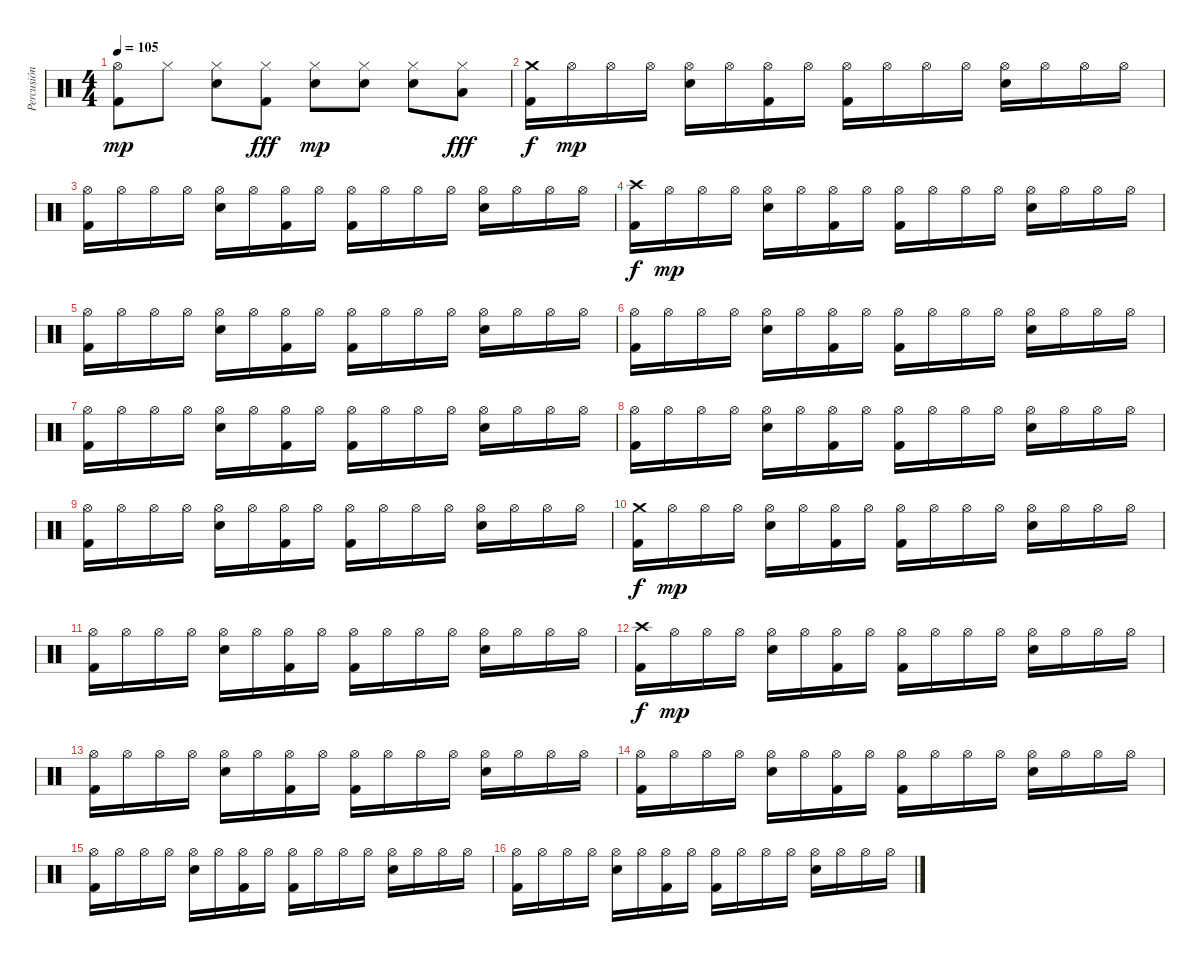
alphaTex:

\track ("Percusión" "Percusión") {instrument percussion}
\staff {score}
\articulation defaults
\ts (4 4)
\tempo 105
\clef neutral
\ks c
("Hi-Hat (open)" "Kick (hit) 2").8{dy mp} "Hi-Hat (closed)".8 ("Hi-Hat (closed)" "Snare (hit) 2").8 ("Hi-Hat (closed)" "Kick (hit) 2").8{dy fff} ("Hi-Hat (closed)" "Snare (hit) 2").8{dy mp} ("Hi-Hat (closed)" "Snare (hit) 2").8 ("Hi-Hat (closed)" "Snare (hit) 2").8 ("Hi-Hat (closed)" "Low Tom (hit)").8{dy fff} |
("Crash medium (hit)" "Kick (hit) 2").16{dy f} "Hi-Hat (open)".16{dy mp} "Hi-Hat (open)".16 "Hi-Hat (open)".16 ("Hi-Hat (open)" "Snare (hit) 2").16 "Hi-Hat (open)".16 ("Hi-Hat (open)" "Kick (hit) 2").16 "Hi-Hat (open)".16 ("Hi-Hat (open)" "Kick (hit) 2").16 "Hi-Hat (open)".16 "Hi-Hat (open)".16 "Hi-Hat (open)".16 ("Hi-Hat (open)" "Snare (hit) 2").16 "Hi-Hat (open)".16 "Hi-Hat (open)".16 "Hi-Hat (open)".16 |
("Hi-Hat (open)" "Kick (hit) 2").16 "Hi-Hat (open)".16 "Hi-Hat (open)".16 "Hi-Hat (open)".16 ("Hi-Hat (open)" "Snare (hit) 2").16 "Hi-Hat (open)".16 ("Hi-Hat (open)" "Kick (hit) 2").16 "Hi-Hat (open)".16 ("Hi-Hat (open)" "Kick (hit) 2").16 "Hi-Hat (open)".16 "Hi-Hat (open)".16 "Hi-Hat (open)".16 ("Hi-Hat (open)" "Snare (hit) 2").16 "Hi-Hat (open)".16 "Hi-Hat (open)".16 "Hi-Hat (open)".16 |
("Crash high (hit)" "Kick (hit) 2").16{dy f} "Hi-Hat (open)".16{dy mp} "Hi-Hat (open)".16 "Hi-Hat (open)".16 ("Hi-Hat (open)" "Snare (hit) 2").16 "Hi-Hat (open)".16 ("Hi-Hat (open)" "Kick (hit) 2").16 "Hi-Hat (open)".16 ("Hi-Hat (open)" "Kick (hit) 2").16 "Hi-Hat (open)".16 "Hi-Hat (open)".16 "Hi-Hat (open)".16 ("Hi-Hat (open)" "Snare (hit) 2").16 "Hi-Hat (open)".16 "Hi-Hat (open)".16 "Hi-Hat (open)".16 |
("Hi-Hat (open)" "Kick (hit) 2").16 "Hi-Hat (open)".16 "Hi-Hat (open)".16 "Hi-Hat (open)".16 ("Hi-Hat (open)" "Snare (hit) 2").16 "Hi-Hat (open)".16 ("Hi-Hat (open)" "Kick (hit) 2").16 "Hi-Hat (open)".16 ("Hi-Hat (open)" "Kick (hit) 2").16 "Hi-Hat (open)".16 "Hi-Hat (open)".16 "Hi-Hat (open)".16 ("Hi-Hat (open)" "Snare (hit) 2").16 "Hi-Hat (open)".16 "Hi-Hat (open)".16 "Hi-Hat (open)".16 |
("Hi-Hat (open)" "Kick (hit) 2").16 "Hi-Hat (open)".16 "Hi-Hat (open)".16 "Hi-Hat (open)".16 ("Hi-Hat (open)" "Snare (hit) 2").16 "Hi-Hat (open)".16 ("Hi-Hat (open)" "Kick (hit) 2").16 "Hi-Hat (open)".16 ("Hi-Hat (open)" "Kick (hit) 2").16 "Hi-Hat (open)".16 "Hi-Hat (open)".16 "Hi-Hat (open)".16 ("Hi-Hat (open)" "Snare (hit) 2").16 "Hi-Hat (open)".16 "Hi-Hat (open)".16 "Hi-Hat (open)".16 |
("Hi-Hat (open)" "Kick (hit) 2").16 "Hi-Hat (open)".16 "Hi-Hat (open)".16 "Hi-Hat (open)".16 ("Hi-Hat (open)" "Snare (hit) 2").16 "Hi-Hat (open)".16 ("Hi-Hat (open)" "Kick (hit) 2").16 "Hi-Hat (open)".16 ("Hi-Hat (open)" "Kick (hit) 2").16 "Hi-Hat (open)".16 "Hi-Hat (open)".16 "Hi-Hat (open)".16 ("Hi-Hat (open)" "Snare (hit) 2").16 "Hi-Hat (open)".16 "Hi-Hat (open)".16 "Hi-Hat (open)".16 |
("Hi-Hat (open)" "Kick (hit) 2").16 "Hi-Hat (open)".16 "Hi-Hat (open)".16 "Hi-Hat (open)".16 ("Hi-Hat (open)" "Snare (hit) 2").16 "Hi-Hat (open)".16 ("Hi-Hat (open)" "Kick (hit) 2").16 "Hi-Hat (open)".16 ("Hi-Hat (open)" "Kick (hit) 2").16 "Hi-Hat (open)".16 "Hi-Hat (open)".16 "Hi-Hat (open)".16 ("Hi-Hat (open)" "Snare (hit) 2").16 "Hi-Hat (open)".16 "Hi-Hat (open)".16 "Hi-Hat (open)".16 |
("Hi-Hat (open)" "Kick (hit) 2").16 "Hi-Hat (open)".16 "Hi-Hat (open)".16 "Hi-Hat (open)".16 ("Hi-Hat (open)" "Snare (hit) 2").16 "Hi-Hat (open)".16 ("Hi-Hat (open)" "Kick (hit) 2").16 "Hi-Hat (open)".16 ("Hi-Hat (open)" "Kick (hit) 2").16 "Hi-Hat (open)".16 "Hi-Hat (open)".16 "Hi-Hat (open)".16 ("Hi-Hat (open)" "Snare (hit) 2").16 "Hi-Hat (open)".16 "Hi-Hat (open)".16 "Hi-Hat (open)".16 |
("Crash medium (hit)" "Kick (hit) 2").16{dy f} "Hi-Hat (open)".16{dy mp} "Hi-Hat (open)".16 "Hi-Hat (open)".16 ("Hi-Hat (open)" "Snare (hit) 2").16 "Hi-Hat (open)".16 ("Hi-Hat (open)" "Kick (hit) 2").16 "Hi-Hat (open)".16 ("Hi-Hat (open)" "Kick (hit) 2").16 "Hi-Hat (open)".16 "Hi-Hat (open)".16 "Hi-Hat (open)".16 ("Hi-Hat (open)" "Snare (hit) 2").16 "Hi-Hat (open)".16 "Hi-Hat (open)".16 "Hi-Hat (open)".16 |
("Hi-Hat (open)" "Kick (hit) 2").16 "Hi-Hat (open)".16 "Hi-Hat (open)".16 "Hi-Hat (open)".16 ("Hi-Hat (open)" "Snare (hit) 2").16 "Hi-Hat (open)".16 ("Hi-Hat (open)" "Kick (hit) 2").16 "Hi-Hat (open)".16 ("Hi-Hat (open)" "Kick (hit) 2").16 "Hi-Hat (open)".16 "Hi-Hat (open)".16 "Hi-Hat (open)".16 ("Hi-Hat (open)" "Snare (hit) 2").16 "Hi-Hat (open)".16 "Hi-Hat (open)".16 "Hi-Hat (open)".16 |
("Crash high (hit)" "Kick (hit) 2").16{dy f} "Hi-Hat (open)".16{dy mp} "Hi-Hat (open)".16 "Hi-Hat (open)".16 ("Hi-Hat (open)" "Snare (hit) 2").16 "Hi-Hat (open)".16 ("Hi-Hat (open)" "Kick (hit) 2").16 "Hi-Hat (open)".16 ("Hi-Hat (open)" "Kick (hit) 2").16 "Hi-Hat (open)".16 "Hi-Hat (open)".16 "Hi-Hat (open)".16 ("Hi-Hat (open)" "Snare (hit) 2").16 "Hi-Hat (open)".16 "Hi-Hat (open)".16 "Hi-Hat (open)".16 |
("Hi-Hat (open)" "Kick (hit) 2").16 "Hi-Hat (open)".16 "Hi-Hat (open)".16 "Hi-Hat (open)".16 ("Hi-Hat (open)" "Snare (hit) 2").16 "Hi-Hat (open)".16 ("Hi-Hat (open)" "Kick (hit) 2").16 "Hi-Hat (open)".16 ("Hi-Hat (open)" "Kick (hit) 2").16 "Hi-Hat (open)".16 "Hi-Hat (open)".16 "Hi-Hat (open)".16 ("Hi-Hat (open)" "Snare (hit) 2").16 "Hi-Hat (open)".16 "Hi-Hat (open)".16 "Hi-Hat (open)".16 |
("Hi-Hat (open)" "Kick (hit) 2").16 "Hi-Hat (open)".16 "Hi-Hat (open)".16 "Hi-Hat (open)".16 ("Hi-Hat (open)" "Snare (hit) 2").16 "Hi-Hat (open)".16 ("Hi-Hat (open)" "Kick (hit) 2").16 "Hi-Hat (open)".16 ("Hi-Hat (open)" "Kick (hit) 2").16 "Hi-Hat (open)".16 "Hi-Hat (open)".16 "Hi-Hat (open)".16 ("Hi-Hat (open)" "Snare (hit) 2").16 "Hi-Hat (open)".16 "Hi-Hat (open)".16 "Hi-Hat (open)".16 |
("Hi-Hat (open)" "Kick (hit) 2").16 "Hi-Hat (open)".16 "Hi-Hat (open)".16 "Hi-Hat (open)".16 ("Hi-Hat (open)" "Snare (hit) 2").16 "Hi-Hat (open)".16 ("Hi-Hat (open)" "Kick (hit) 2").16 "Hi-Hat (open)".16 ("Hi-Hat (open)" "Kick (hit) 2").16 "Hi-Hat (open)".16 "Hi-Hat (open)".16 "Hi-Hat (open)".16 ("Hi-Hat (open)" "Snare (hit) 2").16 "Hi-Hat (open)".16 "Hi-Hat (open)".16 "Hi-Hat (open)".16 |
("Hi-Hat (open)" "Kick (hit) 2").16 "Hi-Hat (open)".16 "Hi-Hat (open)".16 "Hi-Hat (open)".16 ("Hi-Hat (open)" "Snare (hit) 2").16 "Hi-Hat (open)".16 ("Hi-Hat (open)" "Kick (hit) 2").16 "Hi-Hat (open)".16 ("Hi-Hat (open)" "Kick (hit) 2").16 "Hi-Hat (open)".16 "Hi-Hat (open)".16 "Hi-Hat (open)".16 ("Hi-Hat (open)" "Snare (hit) 2").16 "Hi-Hat (open)".16 "Hi-Hat (open)".16 "Hi-Hat (open)".16
